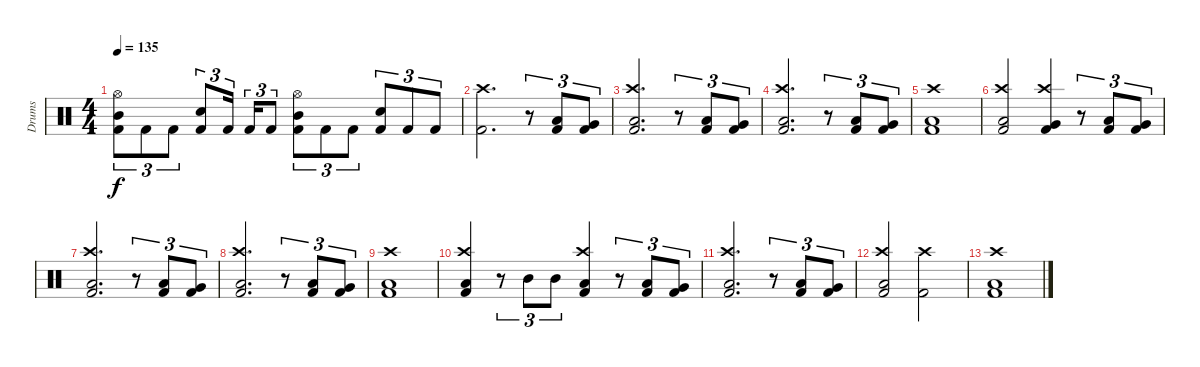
\track ("Drums" "Drums") {instrument percussion}
\staff {score}
\articulation defaults
\ts (4 4)
\tempo 135
\clef neutral
\ks c
("Hi-Hat (open)" "Mid Tom (hit)" "Kick (hit) 2").8{tu (3 2) dy f} "Kick (hit) 2".8{tu (3 2)} "Kick (hit) 2".8{tu (3 2)} ("Snare (hit) 2" "Kick (hit) 2").8{tu (3 2)} "Kick (hit) 2".16{tu (3 2)} "Kick (hit) 2".16{tu (3 2)} "Kick (hit) 2".8{tu (3 2)} ("Hi-Hat (open)" "Mid Tom (hit)" "Kick (hit) 2").8{tu (3 2)} "Kick (hit) 2".8{tu (3 2)} "Kick (hit) 2".8{tu (3 2)} ("Snare (hit) 2" "Kick (hit) 2").8{tu (3 2)} "Kick (hit) 2".8{tu (3 2)} "Kick (hit) 2".8{tu (3 2)} |
("Crash high (hit)" "Kick (hit) 2").2{d} r.8{tu (3 2)} ("Low Tom (hit)" "Kick (hit) 2").8{tu (3 2)} ("Very Low Tom (hit)" "Kick (hit) 2").8{tu (3 2)} |
("Crash high (hit)" "Low Floor Tom (hit)" "Kick (hit) 2").2{d} r.8{tu (3 2)} ("Low Tom (hit)" "Kick (hit) 2").8{tu (3 2)} ("Very Low Tom (hit)" "Kick (hit) 2").8{tu (3 2)} |
("Crash high (hit)" "Low Floor Tom (hit)" "Kick (hit) 2").2{d} r.8{tu (3 2)} ("Low Tom (hit)" "Kick (hit) 2").8{tu (3 2)} ("Very Low Tom (hit)" "Kick (hit) 2").8{tu (3 2)} |
("Crash high (hit)" "Low Floor Tom (hit)" "Kick (hit) 2").1 |
("Crash high (hit)" "Low Floor Tom (hit)" "Kick (hit) 2").2 ("Crash high (hit)" "Very Low Tom (hit)" "Kick (hit) 2").4 r.8{tu (3 2)} ("Low Tom (hit)" "Kick (hit) 2").8{tu (3 2)} ("Very Low Tom (hit)" "Kick (hit) 2").8{tu (3 2)} |
("Crash high (hit)" "Low Floor Tom (hit)" "Kick (hit) 2").2{d} r.8{tu (3 2)} ("Low Tom (hit)" "Kick (hit) 2").8{tu (3 2)} ("Very Low Tom (hit)" "Kick (hit) 2").8{tu (3 2)} |
("Crash high (hit)" "Low Floor Tom (hit)" "Kick (hit) 2").2{d} r.8{tu (3 2)} ("Low Tom (hit)" "Kick (hit) 2").8{tu (3 2)} ("Very Low Tom (hit)" "Kick (hit) 2").8{tu (3 2)} |
("Crash high (hit)" "Low Floor Tom (hit)" "Kick (hit) 2").1 |
("Crash high (hit)" "Low Floor Tom (hit)" "Kick (hit) 2").4 r.8{tu (3 2)} "Mid Tom (hit)".8{tu (3 2)} "Mid Tom (hit)".8{tu (3 2)} ("Crash high (hit)" "Low Tom (hit)" "Kick (hit) 2").4 r.8{tu (3 2)} ("Low Tom (hit)" "Kick (hit) 2").8{tu (3 2)} ("Very Low Tom (hit)" "Kick (hit) 2").8{tu (3 2)} |
("Crash high (hit)" "Low Floor Tom (hit)" "Kick (hit) 2").2{d} r.8{tu (3 2)} ("Low Tom (hit)" "Kick (hit) 2").8{tu (3 2)} ("Very Low Tom (hit)" "Kick (hit) 2").8{tu (3 2)} |
("Crash high (hit)" "Low Floor Tom (hit)" "Kick (hit) 2").2 ("Crash high (hit)" "Kick (hit) 2").2 |
("Crash high (hit)" "Low Floor Tom (hit)" "Kick (hit) 2").1
